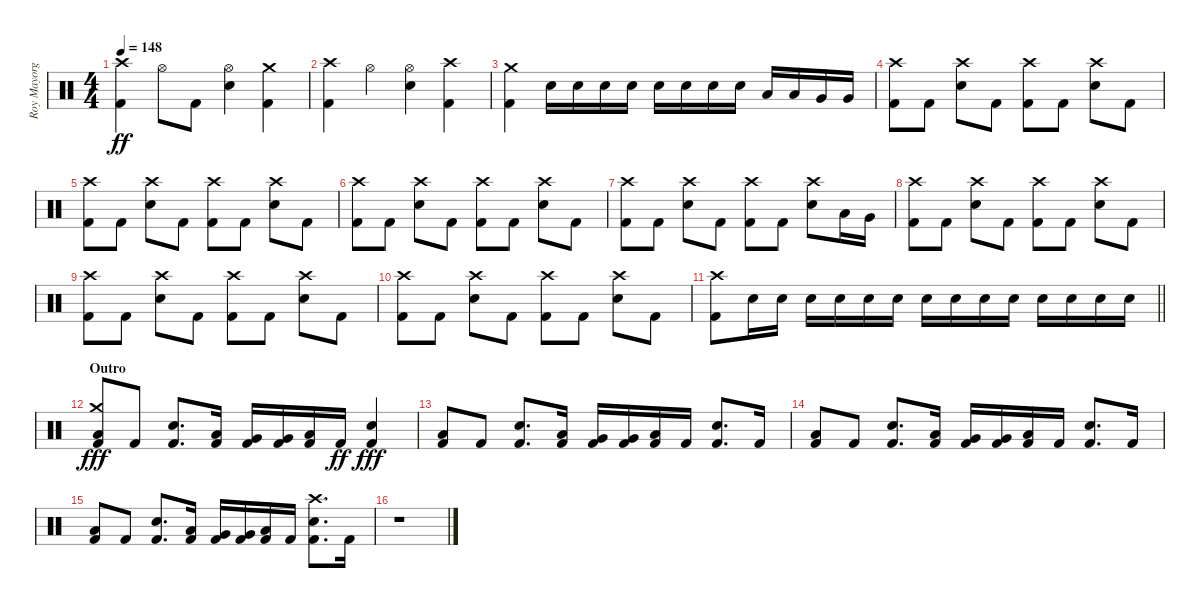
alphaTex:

\track ("Roy Mayorga (Drums)" "Roy Mayorg") {instrument percussion}
\staff {score}
\articulation defaults
\ts (4 4)
\tempo 148
\clef neutral
\ks c
("Crash high (hit)" "Kick (hit) 2").4{dy ff} "Hi-Hat (open)".8 "Kick (hit) 2".8 ("Hi-Hat (open)" "Electric Snare (hit)").4 ("Crash medium (hit)" "Kick (hit) 2").4 |
("Crash high (hit)" "Kick (hit) 2").4 "Hi-Hat (open)".4 ("Hi-Hat (open)" "Electric Snare (hit)").4 ("Crash high (hit)" "Kick (hit) 2").4 |
("Crash medium (hit)" "Kick (hit) 2").4 "Electric Snare (hit)".16 "Electric Snare (hit)".16 "Electric Snare (hit)".16 "Electric Snare (hit)".16 "Electric Snare (hit)".16 "Electric Snare (hit)".16 "Electric Snare (hit)".16 "Electric Snare (hit)".16 "Low Tom (hit)".16 "Low Tom (hit)".16 "Very Low Tom (hit)".16 "Very Low Tom (hit)".16 |
("Crash high (hit)" "Kick (hit) 2").8 "Kick (hit) 2".8 ("Crash high (hit)" "Electric Snare (hit)").8 "Kick (hit) 2".8 ("Crash high (hit)" "Kick (hit) 2").8 "Kick (hit) 2".8 ("Crash high (hit)" "Electric Snare (hit)").8 "Kick (hit) 2".8 |
("Crash high (hit)" "Kick (hit) 2").8 "Kick (hit) 2".8 ("Crash high (hit)" "Electric Snare (hit)").8 "Kick (hit) 2".8 ("Crash high (hit)" "Kick (hit) 2").8 "Kick (hit) 2".8 ("Crash high (hit)" "Electric Snare (hit)").8 "Kick (hit) 2".8 |
("Crash high (hit)" "Kick (hit) 2").8 "Kick (hit) 2".8 ("Crash high (hit)" "Electric Snare (hit)").8 "Kick (hit) 2".8 ("Crash high (hit)" "Kick (hit) 2").8 "Kick (hit) 2".8 ("Crash high (hit)" "Electric Snare (hit)").8 "Kick (hit) 2".8 |
("Crash high (hit)" "Kick (hit) 2").8 "Kick (hit) 2".8 ("Crash high (hit)" "Electric Snare (hit)").8 "Kick (hit) 2".8 ("Crash high (hit)" "Kick (hit) 2").8 "Kick (hit) 2".8 ("Crash high (hit)" "Electric Snare (hit)").8 "Low Tom (hit)".16 "Very Low Tom (hit)".16 |
("Crash high (hit)" "Kick (hit) 2").8 "Kick (hit) 2".8 ("Crash high (hit)" "Electric Snare (hit)").8 "Kick (hit) 2".8 ("Crash high (hit)" "Kick (hit) 2").8 "Kick (hit) 2".8 ("Crash high (hit)" "Electric Snare (hit)").8 "Kick (hit) 2".8 |
("Crash high (hit)" "Kick (hit) 2").8 "Kick (hit) 2".8 ("Crash high (hit)" "Electric Snare (hit)").8 "Kick (hit) 2".8 ("Crash high (hit)" "Kick (hit) 2").8 "Kick (hit) 2".8 ("Crash high (hit)" "Electric Snare (hit)").8 "Kick (hit) 2".8 |
("Crash high (hit)" "Kick (hit) 2").8 "Kick (hit) 2".8 ("Crash high (hit)" "Electric Snare (hit)").8 "Kick (hit) 2".8 ("Crash high (hit)" "Kick (hit) 2").8 "Kick (hit) 2".8 ("Crash high (hit)" "Electric Snare (hit)").8 "Kick (hit) 2".8 |
\barLineRight lightlight
("Crash high (hit)" "Kick (hit) 2").8 "Electric Snare (hit)".16 "Electric Snare (hit)".16 "Electric Snare (hit)".16 "Electric Snare (hit)".16 "Electric Snare (hit)".16 "Electric Snare (hit)".16 "Electric Snare (hit)".16 "Electric Snare (hit)".16 "Electric Snare (hit)".16 "Electric Snare (hit)".16 "Electric Snare (hit)".16 "Electric Snare (hit)".16 "Electric Snare (hit)".16 "Electric Snare (hit)".16 |
\section ("" "Outro")
("Crash medium (hit)" "Low Tom (hit)" "Kick (hit) 2").8{dy fff} "Kick (hit) 2".8 ("Electric Snare (hit)" "Kick (hit) 2").8{d} ("Low Tom (hit)" "Kick (hit) 2").16 ("Very Low Tom (hit)" "Kick (hit) 2").16 ("Very Low Tom (hit)" "Kick (hit) 2").16 ("Low Floor Tom (hit)" "Kick (hit) 2").16 "Kick (hit) 2".16{dy ff} ("Electric Snare (hit)" "Kick (hit) 2").4{dy fff} |
("Low Tom (hit)" "Kick (hit) 2").8 "Kick (hit) 2".8 ("Electric Snare (hit)" "Kick (hit) 2").8{d} ("Low Tom (hit)" "Kick (hit) 2").16 ("Very Low Tom (hit)" "Kick (hit) 2").16 ("Very Low Tom (hit)" "Kick (hit) 2").16 ("Low Floor Tom (hit)" "Kick (hit) 2").16 "Kick (hit) 2".16 ("Electric Snare (hit)" "Kick (hit) 2").8{d} "Kick (hit) 2".16 |
("Low Tom (hit)" "Kick (hit) 2").8 "Kick (hit) 2".8 ("Electric Snare (hit)" "Kick (hit) 2").8{d} ("Low Tom (hit)" "Kick (hit) 2").16 ("Very Low Tom (hit)" "Kick (hit) 2").16 ("Very Low Tom (hit)" "Kick (hit) 2").16 ("Low Floor Tom (hit)" "Kick (hit) 2").16 "Kick (hit) 2".16 ("Electric Snare (hit)" "Kick (hit) 2").8{d} "Kick (hit) 2".16 |
("Low Tom (hit)" "Kick (hit) 2").8 "Kick (hit) 2".8 ("Electric Snare (hit)" "Kick (hit) 2").8{d} ("Low Tom (hit)" "Kick (hit) 2").16 ("Very Low Tom (hit)" "Kick (hit) 2").16 ("Very Low Tom (hit)" "Kick (hit) 2").16 ("Low Floor Tom (hit)" "Kick (hit) 2").16 "Kick (hit) 2".16 ("Crash high (hit)" "Electric Snare (hit)" "Kick (hit) 2").8{d} "Kick (hit) 2".16 |
r.1
